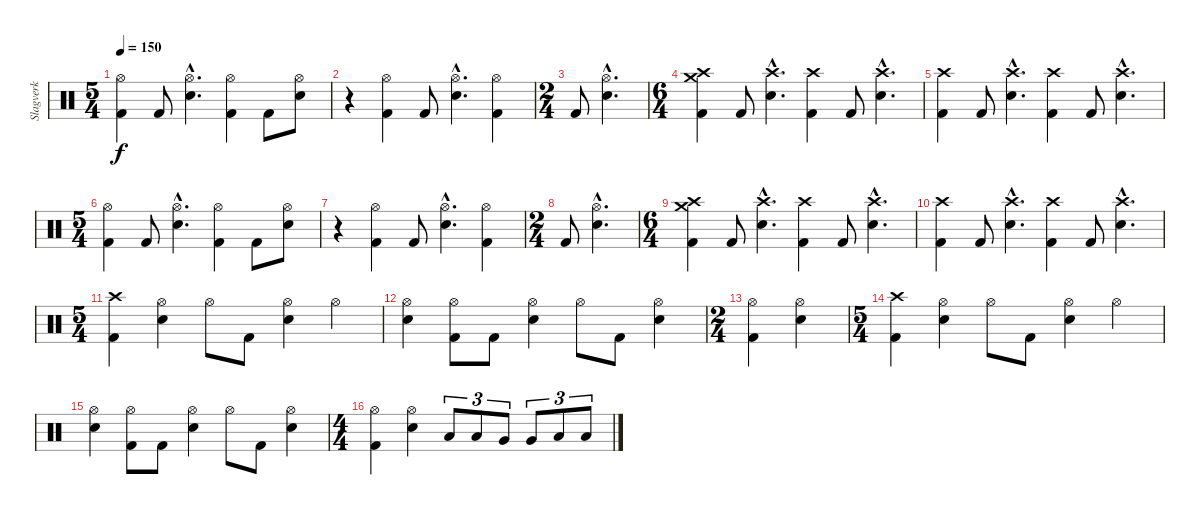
\track ("Slagverk" "Slagverk") {instrument percussion}
\staff {score}
\articulation defaults
\ts (5 4)
\tempo 150
\clef neutral
\ks c
("Hi-Hat (open)" "Kick (hit) 2").4{dy f} "Kick (hit) 2".8 ("Hi-Hat (open)"{hac} "Electric Snare (hit)"{hac}).4{d} ("Hi-Hat (open)" "Kick (hit) 2").4 "Kick (hit) 2".8 ("Hi-Hat (open)" "Electric Snare (hit)").8 |
r.4 ("Hi-Hat (open)" "Kick (hit) 2").4 "Kick (hit) 2".8 ("Hi-Hat (open)"{hac} "Electric Snare (hit)"{hac}).4{d} ("Hi-Hat (open)" "Kick (hit) 2").4 |
\ts (2 4)
"Kick (hit) 2".8 ("Hi-Hat (open)"{hac} "Electric Snare (hit)"{hac}).4{d} |
\ts (6 4)
("Crash medium (hit)" "Crash high (hit)" "Kick (hit) 2").4 "Kick (hit) 2".8 ("Crash high (hit)"{hac} "Electric Snare (hit)"{hac}).4{d} ("Crash high (hit)" "Kick (hit) 2").4 "Kick (hit) 2".8 ("Crash high (hit)"{hac} "Electric Snare (hit)"{hac}).4{d} |
("Crash high (hit)" "Kick (hit) 2").4 "Kick (hit) 2".8 ("Crash high (hit)"{hac} "Electric Snare (hit)"{hac}).4{d} ("Crash high (hit)" "Kick (hit) 2").4 "Kick (hit) 2".8 ("Crash high (hit)"{hac} "Electric Snare (hit)"{hac}).4{d} |
\ts (5 4)
("Hi-Hat (open)" "Kick (hit) 2").4 "Kick (hit) 2".8 ("Hi-Hat (open)"{hac} "Electric Snare (hit)"{hac}).4{d} ("Hi-Hat (open)" "Kick (hit) 2").4 "Kick (hit) 2".8 ("Hi-Hat (open)" "Electric Snare (hit)").8 |
r.4 ("Hi-Hat (open)" "Kick (hit) 2").4 "Kick (hit) 2".8 ("Hi-Hat (open)"{hac} "Electric Snare (hit)"{hac}).4{d} ("Hi-Hat (open)" "Kick (hit) 2").4 |
\ts (2 4)
"Kick (hit) 2".8 ("Hi-Hat (open)"{hac} "Electric Snare (hit)"{hac}).4{d} |
\ts (6 4)
("Crash medium (hit)" "Crash high (hit)" "Kick (hit) 2").4 "Kick (hit) 2".8 ("Crash high (hit)"{hac} "Electric Snare (hit)"{hac}).4{d} ("Crash high (hit)" "Kick (hit) 2").4 "Kick (hit) 2".8 ("Crash high (hit)"{hac} "Electric Snare (hit)"{hac}).4{d} |
("Crash high (hit)" "Kick (hit) 2").4 "Kick (hit) 2".8 ("Crash high (hit)"{hac} "Electric Snare (hit)"{hac}).4{d} ("Crash high (hit)" "Kick (hit) 2").4 "Kick (hit) 2".8 ("Crash high (hit)"{hac} "Electric Snare (hit)"{hac}).4{d} |
\ts (5 4)
("Crash high (hit)" "Kick (hit) 2").4 ("Hi-Hat (open)" "Electric Snare (hit)").4 "Hi-Hat (open)".8 "Kick (hit) 2".8 ("Hi-Hat (open)" "Electric Snare (hit)").4 "Hi-Hat (open)".4 |
("Hi-Hat (open)" "Electric Snare (hit)").4 ("Hi-Hat (open)" "Kick (hit) 2").8 "Kick (hit) 2".8 ("Hi-Hat (open)" "Electric Snare (hit)").4 "Hi-Hat (open)".8 "Kick (hit) 2".8 ("Hi-Hat (open)" "Electric Snare (hit)").4 |
\ts (2 4)
("Hi-Hat (open)" "Kick (hit) 2").4 ("Hi-Hat (open)" "Electric Snare (hit)").4 |
\ts (5 4)
("Crash high (hit)" "Kick (hit) 2").4 ("Hi-Hat (open)" "Electric Snare (hit)").4 "Hi-Hat (open)".8 "Kick (hit) 2".8 ("Hi-Hat (open)" "Electric Snare (hit)").4 "Hi-Hat (open)".4 |
("Hi-Hat (open)" "Electric Snare (hit)").4 ("Hi-Hat (open)" "Kick (hit) 2").8 "Kick (hit) 2".8 ("Hi-Hat (open)" "Electric Snare (hit)").4 "Hi-Hat (open)".8 "Kick (hit) 2".8 ("Hi-Hat (open)" "Electric Snare (hit)").4 |
\ts (4 4)
("Hi-Hat (open)" "Kick (hit) 2").4 ("Hi-Hat (open)" "Electric Snare (hit)").4 "Low Tom (hit)".8{tu (3 2)} "Low Tom (hit)".8{tu (3 2)} "Very Low Tom (hit)".8{tu (3 2)} "Very Low Tom (hit)".8{tu (3 2)} "Low Floor Tom (hit)".8{tu (3 2)} "Low Floor Tom (hit)".8{tu (3 2)}
